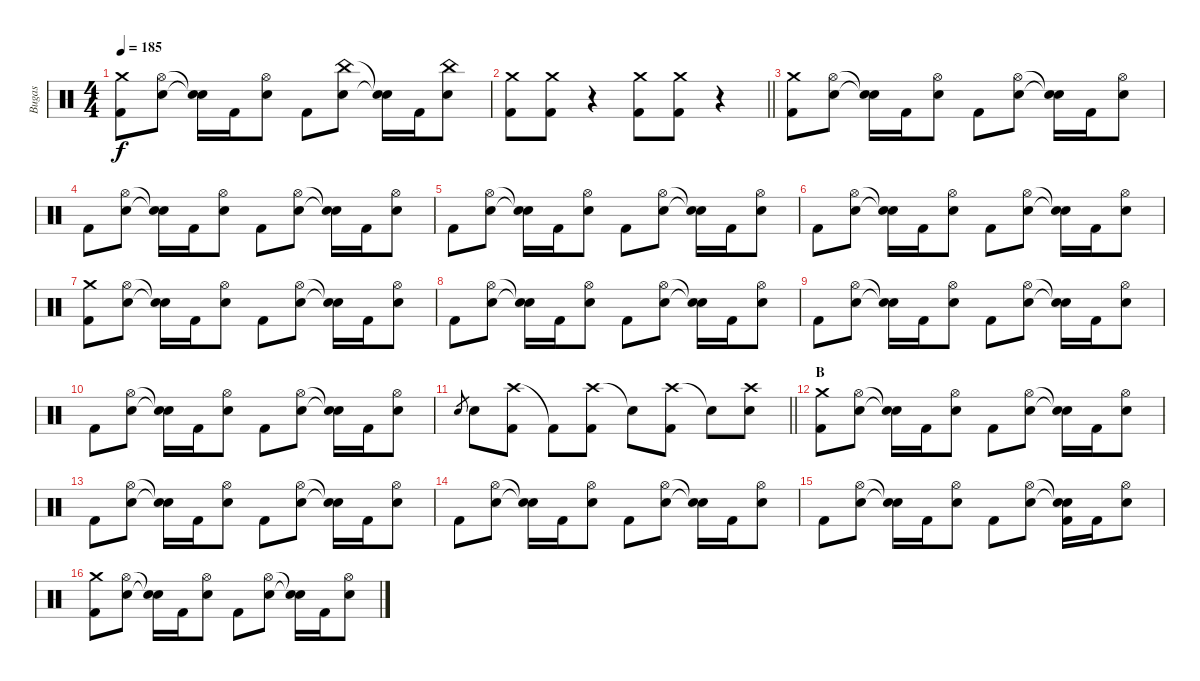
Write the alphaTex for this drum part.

\track ("Bugas" "Bugas") {instrument percussion}
\staff {score}
\articulation defaults
\ts (4 4)
\tempo 185
\clef neutral
\ks c
("Crash medium (hit)" "Kick (hit) 2").8{dy f} ("Hi-Hat (open)" "Electric Snare (hit)").8 ("Snare (hit)"{t} "Snare (hit)"{t}).16 "Kick (hit) 2".16 ("Hi-Hat (open)" "Electric Snare (hit)").8 "Kick (hit) 2".8 ("China (hit)" "Electric Snare (hit)").8 ("Snare (hit)"{t} "Snare (hit)"{t}).16 "Kick (hit) 2".16 ("China (hit)" "Electric Snare (hit)").8 |
\barLineRight lightlight
("Crash medium (hit)" "Kick (hit) 2").8 ("Crash medium (hit)" "Kick (hit) 2").8 r.4 ("Crash medium (hit)" "Kick (hit) 2").8 ("Crash medium (hit)" "Kick (hit) 2").8 r.4 |
("Crash medium (hit)" "Kick (hit) 2").8 ("Hi-Hat (open)" "Electric Snare (hit)").8 ("Snare (hit)"{t} "Snare (hit)"{t}).16 "Kick (hit) 2".16 ("Hi-Hat (open)" "Electric Snare (hit)").8 "Kick (hit) 2".8 ("Hi-Hat (open)" "Electric Snare (hit)").8 ("Snare (hit)"{t} "Snare (hit)"{t}).16 "Kick (hit) 2".16 ("Hi-Hat (open)" "Electric Snare (hit)").8 |
"Kick (hit) 2".8 ("Hi-Hat (open)" "Electric Snare (hit)").8 ("Snare (hit)"{t} "Snare (hit)"{t}).16 "Kick (hit) 2".16 ("Hi-Hat (open)" "Electric Snare (hit)").8 "Kick (hit) 2".8 ("Hi-Hat (open)" "Electric Snare (hit)").8 ("Snare (hit)"{t} "Snare (hit)"{t}).16 "Kick (hit) 2".16 ("Hi-Hat (open)" "Electric Snare (hit)").8 |
"Kick (hit) 2".8 ("Hi-Hat (open)" "Electric Snare (hit)").8 ("Snare (hit)"{t} "Snare (hit)"{t}).16 "Kick (hit) 2".16 ("Hi-Hat (open)" "Electric Snare (hit)").8 "Kick (hit) 2".8 ("Hi-Hat (open)" "Electric Snare (hit)").8 ("Snare (hit)"{t} "Snare (hit)"{t}).16 "Kick (hit) 2".16 ("Hi-Hat (open)" "Electric Snare (hit)").8 |
"Kick (hit) 2".8 ("Hi-Hat (open)" "Electric Snare (hit)").8 ("Snare (hit)"{t} "Snare (hit)"{t}).16 "Kick (hit) 2".16 ("Hi-Hat (open)" "Electric Snare (hit)").8 "Kick (hit) 2".8 ("Hi-Hat (open)" "Electric Snare (hit)").8 ("Snare (hit)"{t} "Snare (hit)"{t}).16 "Kick (hit) 2".16 ("Hi-Hat (open)" "Electric Snare (hit)").8 |
("Crash medium (hit)" "Kick (hit) 2").8 ("Hi-Hat (open)" "Electric Snare (hit)").8 ("Snare (hit)"{t} "Snare (hit)"{t}).16 "Kick (hit) 2".16 ("Hi-Hat (open)" "Electric Snare (hit)").8 "Kick (hit) 2".8 ("Hi-Hat (open)" "Electric Snare (hit)").8 ("Snare (hit)"{t} "Snare (hit)"{t}).16 "Kick (hit) 2".16 ("Hi-Hat (open)" "Electric Snare (hit)").8 |
"Kick (hit) 2".8 ("Hi-Hat (open)" "Electric Snare (hit)").8 ("Snare (hit)"{t} "Snare (hit)"{t}).16 "Kick (hit) 2".16 ("Hi-Hat (open)" "Electric Snare (hit)").8 "Kick (hit) 2".8 ("Hi-Hat (open)" "Electric Snare (hit)").8 ("Snare (hit)"{t} "Snare (hit)"{t}).16 "Kick (hit) 2".16 ("Hi-Hat (open)" "Electric Snare (hit)").8 |
"Kick (hit) 2".8 ("Hi-Hat (open)" "Electric Snare (hit)").8 ("Snare (hit)"{t} "Snare (hit)"{t}).16 "Kick (hit) 2".16 ("Hi-Hat (open)" "Electric Snare (hit)").8 "Kick (hit) 2".8 ("Hi-Hat (open)" "Electric Snare (hit)").8 ("Snare (hit)"{t} "Snare (hit)"{t}).16 "Kick (hit) 2".16 ("Hi-Hat (open)" "Electric Snare (hit)").8 |
"Kick (hit) 2".8 ("Hi-Hat (open)" "Electric Snare (hit)").8 ("Snare (hit)"{t} "Snare (hit)"{t}).16 "Kick (hit) 2".16 ("Hi-Hat (open)" "Electric Snare (hit)").8 "Kick (hit) 2".8 ("Hi-Hat (open)" "Electric Snare (hit)").8 ("Snare (hit)"{t} "Snare (hit)"{t}).16 "Kick (hit) 2".16 ("Hi-Hat (open)" "Electric Snare (hit)").8 |
\barLineRight lightlight "Electric Snare (hit)".8{gr} "Electric Snare (hit)".8
("Crash high (hit)" "Kick (hit) 2").8 "Kick (hit) 2"{t}.8 ("Crash high (hit)" "Kick (hit) 2").8 "Snare (hit)"{t}.8 ("Crash high (hit)" "Kick (hit) 2").8 "Snare (hit)"{t}.8 ("Crash high (hit)" "Electric Snare (hit)").8 |
\section ("" "B")
("Crash medium (hit)" "Kick (hit) 2").8 ("Hi-Hat (open)" "Electric Snare (hit)").8 ("Snare (hit)"{t} "Snare (hit)"{t}).16 "Kick (hit) 2".16 ("Hi-Hat (open)" "Electric Snare (hit)").8 "Kick (hit) 2".8 ("Hi-Hat (open)" "Electric Snare (hit)").8 ("Snare (hit)"{t} "Snare (hit)"{t}).16 "Kick (hit) 2".16 ("Hi-Hat (open)" "Electric Snare (hit)").8 |
"Kick (hit) 2".8 ("Hi-Hat (open)" "Electric Snare (hit)").8 ("Snare (hit)"{t} "Snare (hit)"{t}).16 "Kick (hit) 2".16 ("Hi-Hat (open)" "Electric Snare (hit)").8 "Kick (hit) 2".8 ("Hi-Hat (open)" "Electric Snare (hit)").8 ("Snare (hit)"{t} "Snare (hit)"{t}).16 "Kick (hit) 2".16 ("Hi-Hat (open)" "Electric Snare (hit)").8 |
"Kick (hit) 2".8 ("Hi-Hat (open)" "Electric Snare (hit)").8 ("Snare (hit)"{t} "Snare (hit)"{t}).16 "Kick (hit) 2".16 ("Hi-Hat (open)" "Electric Snare (hit)").8 "Kick (hit) 2".8 ("Hi-Hat (open)" "Electric Snare (hit)").8 ("Snare (hit)"{t} "Snare (hit)"{t}).16 "Kick (hit) 2".16 ("Hi-Hat (open)" "Electric Snare (hit)").8 |
"Kick (hit) 2".8 ("Hi-Hat (open)" "Electric Snare (hit)").8 ("Snare (hit)"{t} "Snare (hit)"{t}).16 "Kick (hit) 2".16 ("Hi-Hat (open)" "Electric Snare (hit)").8 "Kick (hit) 2".8 ("Hi-Hat (open)" "Electric Snare (hit)").8 ("Snare (hit)"{t} "Snare (hit)"{t} "Kick (hit) 2").16 "Kick (hit) 2".16 ("Hi-Hat (open)" "Electric Snare (hit)").8 |
("Crash medium (hit)" "Kick (hit) 2").8 ("Hi-Hat (open)" "Electric Snare (hit)").8 ("Snare (hit)"{t} "Snare (hit)"{t}).16 "Kick (hit) 2".16 ("Hi-Hat (open)" "Electric Snare (hit)").8 "Kick (hit) 2".8 ("Hi-Hat (open)" "Electric Snare (hit)").8 ("Snare (hit)"{t} "Snare (hit)"{t}).16 "Kick (hit) 2".16 ("Hi-Hat (open)" "Electric Snare (hit)").8
